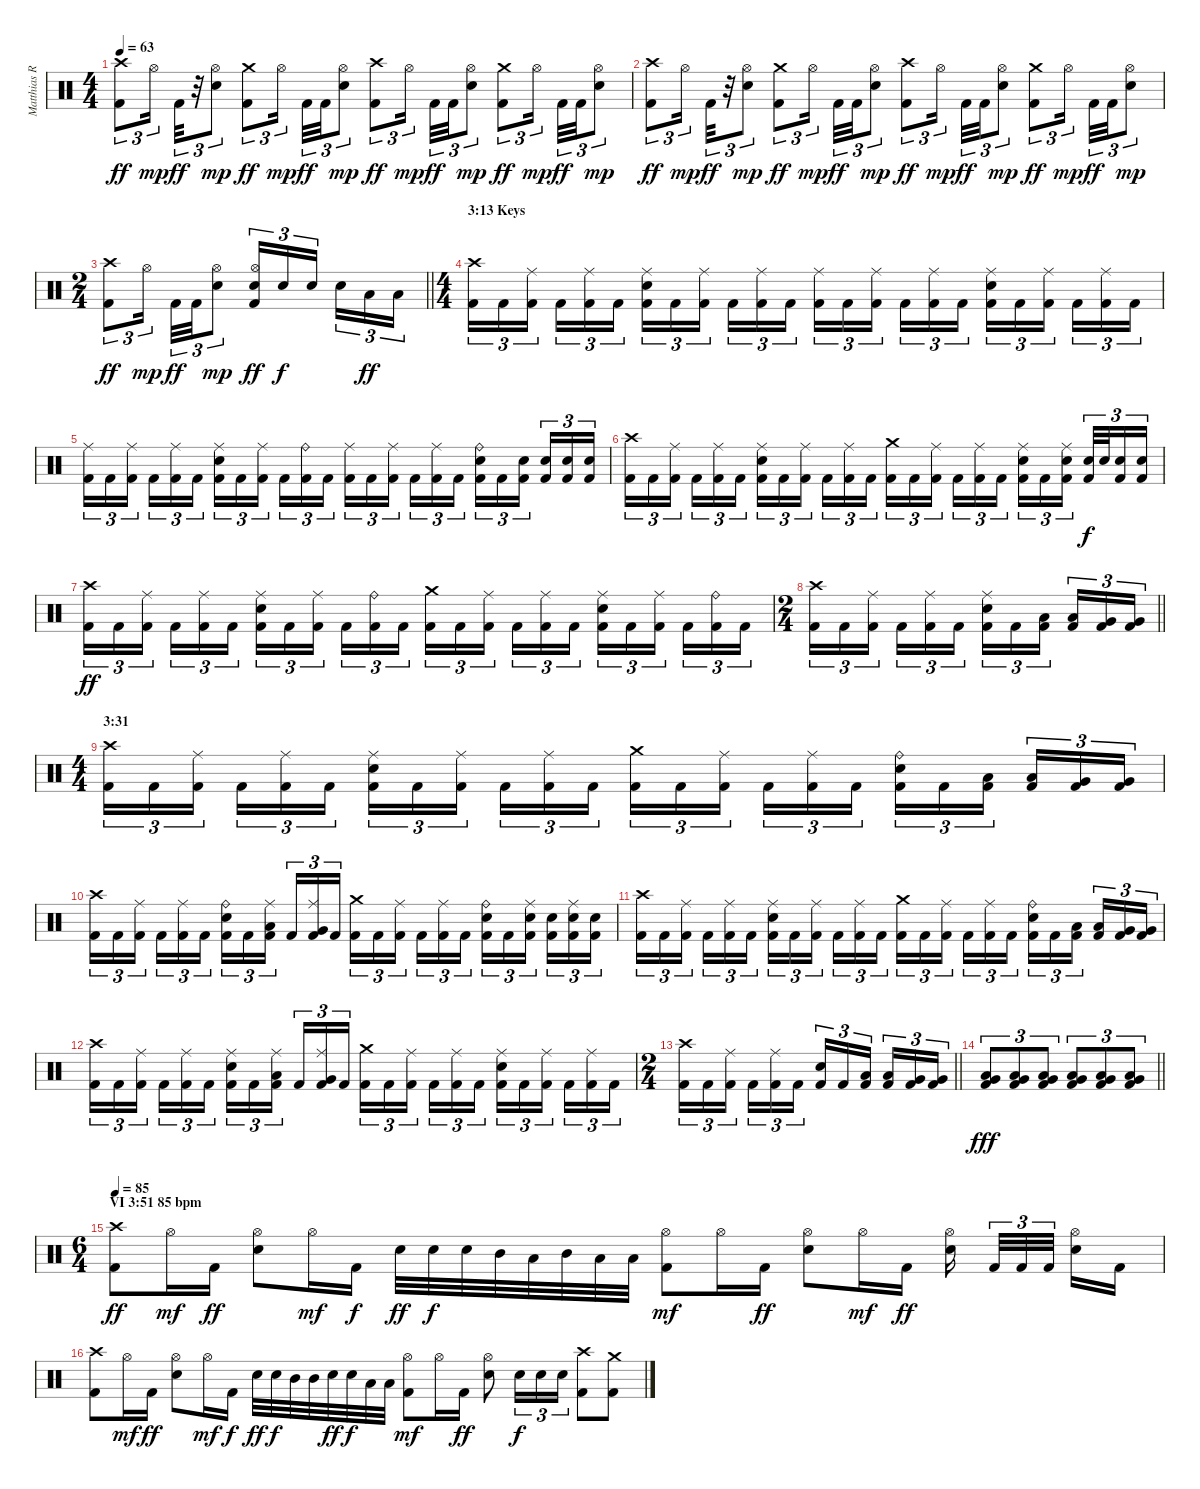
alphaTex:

\track ("Matthias R." "Matthias R") {instrument percussion}
\staff {score}
\articulation defaults
\ts (4 4)
\tempo 63
\clef neutral
\ks c
("Crash high (hit)" "Kick (hit) 2").8{tu (3 2) dy ff} "Hi-Hat (open)".16{tu (3 2) dy mp} "Kick (hit) 2".32{tu (3 2) dy ff} r.32{tu (3 2)} ("Hi-Hat (open)" "Electric Snare (hit)").8{tu (3 2) dy mp} ("Crash medium (hit)" "Kick (hit) 2").8{tu (3 2) dy ff} "Hi-Hat (open)".16{tu (3 2) dy mp beam splitsecondary} "Kick (hit) 2".32{tu (3 2) dy ff} "Kick (hit) 2".32{tu (3 2)} ("Hi-Hat (open)" "Electric Snare (hit)").8{tu (3 2) dy mp} ("Crash high (hit)" "Kick (hit) 2").8{tu (3 2) dy ff} "Hi-Hat (open)".16{tu (3 2) dy mp beam splitsecondary} "Kick (hit) 2".32{tu (3 2) dy ff} "Kick (hit) 2".32{tu (3 2)} ("Hi-Hat (open)" "Electric Snare (hit)").8{tu (3 2) dy mp} ("Crash medium (hit)" "Kick (hit) 2").8{tu (3 2) dy ff} "Hi-Hat (open)".16{tu (3 2) dy mp beam splitsecondary} "Kick (hit) 2".32{tu (3 2) dy ff} "Kick (hit) 2".32{tu (3 2)} ("Hi-Hat (open)" "Electric Snare (hit)").8{tu (3 2) dy mp} |
("Crash high (hit)" "Kick (hit) 2").8{tu (3 2) dy ff} "Hi-Hat (open)".16{tu (3 2) dy mp} "Kick (hit) 2".32{tu (3 2) dy ff} r.32{tu (3 2)} ("Hi-Hat (open)" "Electric Snare (hit)").8{tu (3 2) dy mp} ("Crash medium (hit)" "Kick (hit) 2").8{tu (3 2) dy ff} "Hi-Hat (open)".16{tu (3 2) dy mp beam splitsecondary} "Kick (hit) 2".32{tu (3 2) dy ff} "Kick (hit) 2".32{tu (3 2)} ("Hi-Hat (open)" "Electric Snare (hit)").8{tu (3 2) dy mp} ("Crash high (hit)" "Kick (hit) 2").8{tu (3 2) dy ff} "Hi-Hat (open)".16{tu (3 2) dy mp beam splitsecondary} "Kick (hit) 2".32{tu (3 2) dy ff} "Kick (hit) 2".32{tu (3 2)} ("Hi-Hat (open)" "Electric Snare (hit)").8{tu (3 2) dy mp} ("Crash medium (hit)" "Kick (hit) 2").8{tu (3 2) dy ff} "Hi-Hat (open)".16{tu (3 2) dy mp beam splitsecondary} "Kick (hit) 2".32{tu (3 2) dy ff} "Kick (hit) 2".32{tu (3 2)} ("Hi-Hat (open)" "Electric Snare (hit)").8{tu (3 2) dy mp} |
\ts (2 4)
\barLineRight lightlight
("Crash high (hit)" "Kick (hit) 2").8{tu (3 2) dy ff} "Hi-Hat (open)".16{tu (3 2) dy mp beam splitsecondary} "Kick (hit) 2".32{tu (3 2) dy ff} "Kick (hit) 2".32{tu (3 2)} ("Hi-Hat (open)" "Electric Snare (hit)").8{tu (3 2) dy mp} ("Hi-Hat (open)" "Electric Snare (hit)" "Kick (hit) 2").16{tu (3 2) dy ff} "Electric Snare (hit)".16{tu (3 2) dy f} "Electric Snare (hit)".16{tu (3 2) beam splitsecondary} "Electric Snare (hit)".16{tu (3 2)} "Low Tom (hit)".16{tu (3 2) dy ff} "Low Tom (hit)".16{tu (3 2)} |
\ts (4 4)
\section ("" "3:13 Keys")
("Crash high (hit)" "Kick (hit) 2").16{tu (3 2)} "Kick (hit) 2".16{tu (3 2)} ("Ride (middle)" "Kick (hit) 2").16{tu (3 2) beam splitsecondary} "Kick (hit) 2".16{tu (3 2)} ("Ride (middle)" "Kick (hit) 2").16{tu (3 2)} "Kick (hit) 2".16{tu (3 2)} ("Ride (middle)" "Electric Snare (hit)" "Kick (hit) 2").16{tu (3 2)} "Kick (hit) 2".16{tu (3 2)} ("Ride (middle)" "Kick (hit) 2").16{tu (3 2) beam splitsecondary} "Kick (hit) 2".16{tu (3 2)} ("Ride (middle)" "Kick (hit) 2").16{tu (3 2)} "Kick (hit) 2".16{tu (3 2)} ("Ride (middle)" "Kick (hit) 2").16{tu (3 2)} "Kick (hit) 2".16{tu (3 2)} ("Ride (middle)" "Kick (hit) 2").16{tu (3 2) beam splitsecondary} "Kick (hit) 2".16{tu (3 2)} ("Ride (middle)" "Kick (hit) 2").16{tu (3 2)} "Kick (hit) 2".16{tu (3 2)} ("Ride (middle)" "Electric Snare (hit)" "Kick (hit) 2").16{tu (3 2)} "Kick (hit) 2".16{tu (3 2)} ("Ride (middle)" "Kick (hit) 2").16{tu (3 2) beam splitsecondary} "Kick (hit) 2".16{tu (3 2)} ("Ride (middle)" "Kick (hit) 2").16{tu (3 2)} "Kick (hit) 2".16{tu (3 2)} |
("Ride (middle)" "Kick (hit) 2").16{tu (3 2)} "Kick (hit) 2".16{tu (3 2)} ("Ride (middle)" "Kick (hit) 2").16{tu (3 2) beam splitsecondary} "Kick (hit) 2".16{tu (3 2)} ("Ride (middle)" "Kick (hit) 2").16{tu (3 2)} "Kick (hit) 2".16{tu (3 2)} ("Ride (middle)" "Electric Snare (hit)" "Kick (hit) 2").16{tu (3 2)} "Kick (hit) 2".16{tu (3 2)} ("Ride (middle)" "Kick (hit) 2").16{tu (3 2) beam splitsecondary} "Kick (hit) 2".16{tu (3 2)} ("Ride (bell)" "Kick (hit) 2").16{tu (3 2)} "Kick (hit) 2".16{tu (3 2)} ("Ride (middle)" "Kick (hit) 2").16{tu (3 2)} "Kick (hit) 2".16{tu (3 2)} ("Ride (middle)" "Kick (hit) 2").16{tu (3 2) beam splitsecondary} "Kick (hit) 2".16{tu (3 2)} ("Ride (middle)" "Kick (hit) 2").16{tu (3 2)} "Kick (hit) 2".16{tu (3 2)} ("Ride (bell)" "Electric Snare (hit)" "Kick (hit) 2").16{tu (3 2)} "Kick (hit) 2".16{tu (3 2)} ("Electric Snare (hit)" "Kick (hit) 2").16{tu (3 2) beam splitsecondary} ("Electric Snare (hit)" "Kick (hit) 2").16{tu (3 2)} ("Electric Snare (hit)" "Kick (hit) 2").16{tu (3 2)} ("Electric Snare (hit)" "Kick (hit) 2").16{tu (3 2)} |
("Crash high (hit)" "Kick (hit) 2").16{tu (3 2)} "Kick (hit) 2".16{tu (3 2)} ("Ride (middle)" "Kick (hit) 2").16{tu (3 2) beam splitsecondary} "Kick (hit) 2".16{tu (3 2)} ("Ride (middle)" "Kick (hit) 2").16{tu (3 2)} "Kick (hit) 2".16{tu (3 2)} ("Ride (middle)" "Electric Snare (hit)" "Kick (hit) 2").16{tu (3 2)} "Kick (hit) 2".16{tu (3 2)} ("Ride (middle)" "Kick (hit) 2").16{tu (3 2) beam splitsecondary} "Kick (hit) 2".16{tu (3 2)} ("Ride (middle)" "Kick (hit) 2").16{tu (3 2)} "Kick (hit) 2".16{tu (3 2)} ("Crash medium (hit)" "Kick (hit) 2").16{tu (3 2)} "Kick (hit) 2".16{tu (3 2)} ("Ride (middle)" "Kick (hit) 2").16{tu (3 2) beam splitsecondary} "Kick (hit) 2".16{tu (3 2)} ("Ride (middle)" "Kick (hit) 2").16{tu (3 2)} "Kick (hit) 2".16{tu (3 2)} ("Ride (middle)" "Electric Snare (hit)" "Kick (hit) 2").16{tu (3 2)} "Kick (hit) 2".16{tu (3 2)} ("Ride (middle)" "Electric Snare (hit)" "Kick (hit) 2").16{tu (3 2) beam splitsecondary} ("Electric Snare (hit)" "Kick (hit) 2").32{tu (3 2) dy f} "Electric Snare (hit)".32{tu (3 2)} ("Electric Snare (hit)" "Kick (hit) 2").16{tu (3 2)} ("Electric Snare (hit)" "Kick (hit) 2").16{tu (3 2)} |
("Crash high (hit)" "Kick (hit) 2").16{tu (3 2) dy ff} "Kick (hit) 2".16{tu (3 2)} ("Ride (middle)" "Kick (hit) 2").16{tu (3 2) beam splitsecondary} "Kick (hit) 2".16{tu (3 2)} ("Ride (middle)" "Kick (hit) 2").16{tu (3 2)} "Kick (hit) 2".16{tu (3 2)} ("Ride (middle)" "Electric Snare (hit)" "Kick (hit) 2").16{tu (3 2)} "Kick (hit) 2".16{tu (3 2)} ("Ride (middle)" "Kick (hit) 2").16{tu (3 2) beam splitsecondary} "Kick (hit) 2".16{tu (3 2)} ("Ride (bell)" "Kick (hit) 2").16{tu (3 2)} "Kick (hit) 2".16{tu (3 2)} ("Crash medium (hit)" "Kick (hit) 2").16{tu (3 2)} "Kick (hit) 2".16{tu (3 2)} ("Ride (middle)" "Kick (hit) 2").16{tu (3 2) beam splitsecondary} "Kick (hit) 2".16{tu (3 2)} ("Ride (middle)" "Kick (hit) 2").16{tu (3 2)} "Kick (hit) 2".16{tu (3 2)} ("Ride (middle)" "Electric Snare (hit)" "Kick (hit) 2").16{tu (3 2)} "Kick (hit) 2".16{tu (3 2)} ("Ride (middle)" "Kick (hit) 2").16{tu (3 2) beam splitsecondary} "Kick (hit) 2".16{tu (3 2)} ("Ride (bell)" "Kick (hit) 2").16{tu (3 2)} "Kick (hit) 2".16{tu (3 2)} |
\ts (2 4)
\barLineRight lightlight
("Crash high (hit)" "Kick (hit) 2").16{tu (3 2)} "Kick (hit) 2".16{tu (3 2)} ("Ride (middle)" "Kick (hit) 2").16{tu (3 2) beam splitsecondary} "Kick (hit) 2".16{tu (3 2)} ("Ride (middle)" "Kick (hit) 2").16{tu (3 2)} "Kick (hit) 2".16{tu (3 2)} ("Ride (middle)" "Electric Snare (hit)" "Kick (hit) 2").16{tu (3 2)} "Kick (hit) 2".16{tu (3 2)} ("Low Tom (hit)" "Kick (hit) 2").16{tu (3 2) beam splitsecondary} ("Low Tom (hit)" "Kick (hit) 2").16{tu (3 2)} ("Very Low Tom (hit)" "Kick (hit) 2").16{tu (3 2)} ("Very Low Tom (hit)" "Kick (hit) 2").16{tu (3 2)} |
\ts (4 4)
\section ("" "3:31")
("Crash high (hit)" "Kick (hit) 2").16{tu (3 2)} "Kick (hit) 2".16{tu (3 2)} ("Ride (middle)" "Kick (hit) 2").16{tu (3 2) beam splitsecondary} "Kick (hit) 2".16{tu (3 2)} ("Ride (middle)" "Kick (hit) 2").16{tu (3 2)} "Kick (hit) 2".16{tu (3 2)} ("Ride (middle)" "Electric Snare (hit)" "Kick (hit) 2").16{tu (3 2)} "Kick (hit) 2".16{tu (3 2)} ("Ride (middle)" "Kick (hit) 2").16{tu (3 2) beam splitsecondary} "Kick (hit) 2".16{tu (3 2)} ("Ride (middle)" "Kick (hit) 2").16{tu (3 2)} "Kick (hit) 2".16{tu (3 2)} ("Crash medium (hit)" "Kick (hit) 2").16{tu (3 2)} "Kick (hit) 2".16{tu (3 2)} ("Ride (middle)" "Kick (hit) 2").16{tu (3 2) beam splitsecondary} "Kick (hit) 2".16{tu (3 2)} ("Ride (middle)" "Kick (hit) 2").16{tu (3 2)} "Kick (hit) 2".16{tu (3 2)} ("Ride (bell)" "Electric Snare (hit)" "Kick (hit) 2").16{tu (3 2)} "Kick (hit) 2".16{tu (3 2)} ("Low Tom (hit)" "Kick (hit) 2").16{tu (3 2) beam splitsecondary} ("Low Tom (hit)" "Kick (hit) 2").16{tu (3 2)} ("Very Low Tom (hit)" "Kick (hit) 2").16{tu (3 2)} ("Very Low Tom (hit)" "Kick (hit) 2").16{tu (3 2)} |
("Crash high (hit)" "Kick (hit) 2").16{tu (3 2)} "Kick (hit) 2".16{tu (3 2)} ("Ride (middle)" "Kick (hit) 2").16{tu (3 2) beam splitsecondary} "Kick (hit) 2".16{tu (3 2)} ("Ride (middle)" "Kick (hit) 2").16{tu (3 2)} "Kick (hit) 2".16{tu (3 2)} ("Ride (bell)" "Electric Snare (hit)" "Kick (hit) 2").16{tu (3 2)} "Kick (hit) 2".16{tu (3 2)} ("Ride (middle)" "Low Tom (hit)" "Kick (hit) 2").16{tu (3 2) beam splitsecondary} "Kick (hit) 2".16{tu (3 2)} ("Ride (middle)" "Very Low Tom (hit)" "Kick (hit) 2").16{tu (3 2)} "Kick (hit) 2".16{tu (3 2)} ("Crash medium (hit)" "Kick (hit) 2").16{tu (3 2)} "Kick (hit) 2".16{tu (3 2)} ("Ride (middle)" "Kick (hit) 2").16{tu (3 2) beam splitsecondary} "Kick (hit) 2".16{tu (3 2)} ("Ride (middle)" "Kick (hit) 2").16{tu (3 2)} "Kick (hit) 2".16{tu (3 2)} ("Ride (bell)" "Electric Snare (hit)" "Kick (hit) 2").16{tu (3 2)} "Kick (hit) 2".16{tu (3 2)} ("Ride (middle)" "Electric Snare (hit)" "Kick (hit) 2").16{tu (3 2) beam splitsecondary} ("Electric Snare (hit)" "Kick (hit) 2").16{tu (3 2)} ("Ride (middle)" "Electric Snare (hit)" "Kick (hit) 2").16{tu (3 2)} ("Electric Snare (hit)" "Kick (hit) 2").16{tu (3 2)} |
("Crash high (hit)" "Kick (hit) 2").16{tu (3 2)} "Kick (hit) 2".16{tu (3 2)} ("Ride (middle)" "Kick (hit) 2").16{tu (3 2) beam splitsecondary} "Kick (hit) 2".16{tu (3 2)} ("Ride (middle)" "Kick (hit) 2").16{tu (3 2)} "Kick (hit) 2".16{tu (3 2)} ("Ride (middle)" "Electric Snare (hit)" "Kick (hit) 2").16{tu (3 2)} "Kick (hit) 2".16{tu (3 2)} ("Ride (middle)" "Kick (hit) 2").16{tu (3 2) beam splitsecondary} "Kick (hit) 2".16{tu (3 2)} ("Ride (middle)" "Kick (hit) 2").16{tu (3 2)} "Kick (hit) 2".16{tu (3 2)} ("Crash medium (hit)" "Kick (hit) 2").16{tu (3 2)} "Kick (hit) 2".16{tu (3 2)} ("Ride (middle)" "Kick (hit) 2").16{tu (3 2) beam splitsecondary} "Kick (hit) 2".16{tu (3 2)} ("Ride (middle)" "Kick (hit) 2").16{tu (3 2)} "Kick (hit) 2".16{tu (3 2)} ("Ride (bell)" "Electric Snare (hit)" "Kick (hit) 2").16{tu (3 2)} "Kick (hit) 2".16{tu (3 2)} ("Low Tom (hit)" "Kick (hit) 2").16{tu (3 2) beam splitsecondary} ("Low Tom (hit)" "Kick (hit) 2").16{tu (3 2)} ("Very Low Tom (hit)" "Kick (hit) 2").16{tu (3 2)} ("Very Low Tom (hit)" "Kick (hit) 2").16{tu (3 2)} |
("Crash high (hit)" "Kick (hit) 2").16{tu (3 2)} "Kick (hit) 2".16{tu (3 2)} ("Ride (middle)" "Kick (hit) 2").16{tu (3 2) beam splitsecondary} "Kick (hit) 2".16{tu (3 2)} ("Ride (middle)" "Kick (hit) 2").16{tu (3 2)} "Kick (hit) 2".16{tu (3 2)} ("Ride (middle)" "Electric Snare (hit)" "Kick (hit) 2").16{tu (3 2)} "Kick (hit) 2".16{tu (3 2)} ("Ride (middle)" "Low Tom (hit)" "Kick (hit) 2").16{tu (3 2) beam splitsecondary} "Kick (hit) 2".16{tu (3 2)} ("Ride (middle)" "Very Low Tom (hit)" "Kick (hit) 2").16{tu (3 2)} "Kick (hit) 2".16{tu (3 2)} ("Crash medium (hit)" "Kick (hit) 2").16{tu (3 2)} "Kick (hit) 2".16{tu (3 2)} ("Ride (middle)" "Kick (hit) 2").16{tu (3 2) beam splitsecondary} "Kick (hit) 2".16{tu (3 2)} ("Ride (middle)" "Kick (hit) 2").16{tu (3 2)} "Kick (hit) 2".16{tu (3 2)} ("Ride (middle)" "Electric Snare (hit)" "Kick (hit) 2").16{tu (3 2)} "Kick (hit) 2".16{tu (3 2)} ("Ride (middle)" "Kick (hit) 2").16{tu (3 2) beam splitsecondary} "Kick (hit) 2".16{tu (3 2)} ("Ride (middle)" "Kick (hit) 2").16{tu (3 2)} "Kick (hit) 2".16{tu (3 2)} |
\ts (2 4)
\barLineRight lightlight
("Crash high (hit)" "Kick (hit) 2").16{tu (3 2)} "Kick (hit) 2".16{tu (3 2)} ("Ride (middle)" "Kick (hit) 2").16{tu (3 2) beam splitsecondary} "Kick (hit) 2".16{tu (3 2)} ("Ride (middle)" "Kick (hit) 2").16{tu (3 2)} "Kick (hit) 2".16{tu (3 2)} ("Electric Snare (hit)" "Kick (hit) 2").16{tu (3 2)} "Kick (hit) 2".16{tu (3 2)} ("Low Tom (hit)" "Kick (hit) 2").16{tu (3 2) beam splitsecondary} ("Low Tom (hit)" "Kick (hit) 2").16{tu (3 2)} ("Very Low Tom (hit)" "Kick (hit) 2").16{tu (3 2)} ("Very Low Tom (hit)" "Kick (hit) 2").16{tu (3 2)} |
\barLineRight lightlight
("Low Tom (hit)" "Very Low Tom (hit)" "Kick (hit) 2").8{tu (3 2) dy fff} ("Low Tom (hit)" "Very Low Tom (hit)" "Kick (hit) 2").8{tu (3 2)} ("Low Tom (hit)" "Very Low Tom (hit)" "Kick (hit) 2").8{tu (3 2)} ("Low Floor Tom (hit)" "Very Low Tom (hit)" "Kick (hit) 2").8{tu (3 2)} ("Low Floor Tom (hit)" "Very Low Tom (hit)" "Kick (hit) 2").8{tu (3 2)} ("Low Floor Tom (hit)" "Very Low Tom (hit)" "Kick (hit) 2").8{tu (3 2)} |
\ts (6 4)
\section ("" "VI 3:51 85 bpm")
\tempo 85
("Crash high (hit)" "Kick (hit) 2").8{dy ff} "Hi-Hat (open)".16{dy mf} "Kick (hit) 2".16{dy ff} ("Hi-Hat (open)" "Electric Snare (hit)").8 "Hi-Hat (open)".16{dy mf} "Kick (hit) 2".16{dy f} "Electric Snare (hit)".32{dy ff} "Electric Snare (hit)".32{dy f} "Electric Snare (hit)".32 "Mid Tom (hit)".32 "Low Tom (hit)".32 "Mid Tom (hit)".32 "Low Tom (hit)".32 "Low Tom (hit)".32 ("Hi-Hat (open)" "Kick (hit) 2").8{dy mf} "Hi-Hat (open)".16 "Kick (hit) 2".16{dy ff} ("Hi-Hat (open)" "Electric Snare (hit)").8 "Hi-Hat (open)".16{dy mf} "Kick (hit) 2".16{dy ff} ("Hi-Hat (open)" "Electric Snare (hit)").16{beam splitsecondary} "Kick (hit) 2".32{tu (3 2)} "Kick (hit) 2".32{tu (3 2)} "Kick (hit) 2".32{tu (3 2) beam splitsecondary} ("Hi-Hat (open)" "Electric Snare (hit)").16 "Kick (hit) 2".16 |
("Crash high (hit)" "Kick (hit) 2").8 "Hi-Hat (open)".16{dy mf} "Kick (hit) 2".16{dy ff} ("Hi-Hat (open)" "Electric Snare (hit)").8 "Hi-Hat (open)".16{dy mf} "Kick (hit) 2".16{dy f} "Electric Snare (hit)".32{dy ff} "Electric Snare (hit)".32{dy f} "Mid Tom (hit)".32 "Mid Tom (hit)".32 "Electric Snare (hit)".32{dy ff} "Electric Snare (hit)".32{dy f} "Low Tom (hit)".32 "Low Tom (hit)".32 ("Hi-Hat (open)" "Kick (hit) 2").8{dy mf} "Hi-Hat (open)".16 "Kick (hit) 2".16{dy ff} ("Hi-Hat (open)" "Electric Snare (hit)").8 "Electric Snare (hit)".16{tu (3 2) dy f} "Electric Snare (hit)".16{tu (3 2)} "Electric Snare (hit)".16{tu (3 2)} ("Crash high (hit)" "Kick (hit) 2").8 ("Crash medium (hit)" "Kick (hit) 2").8
